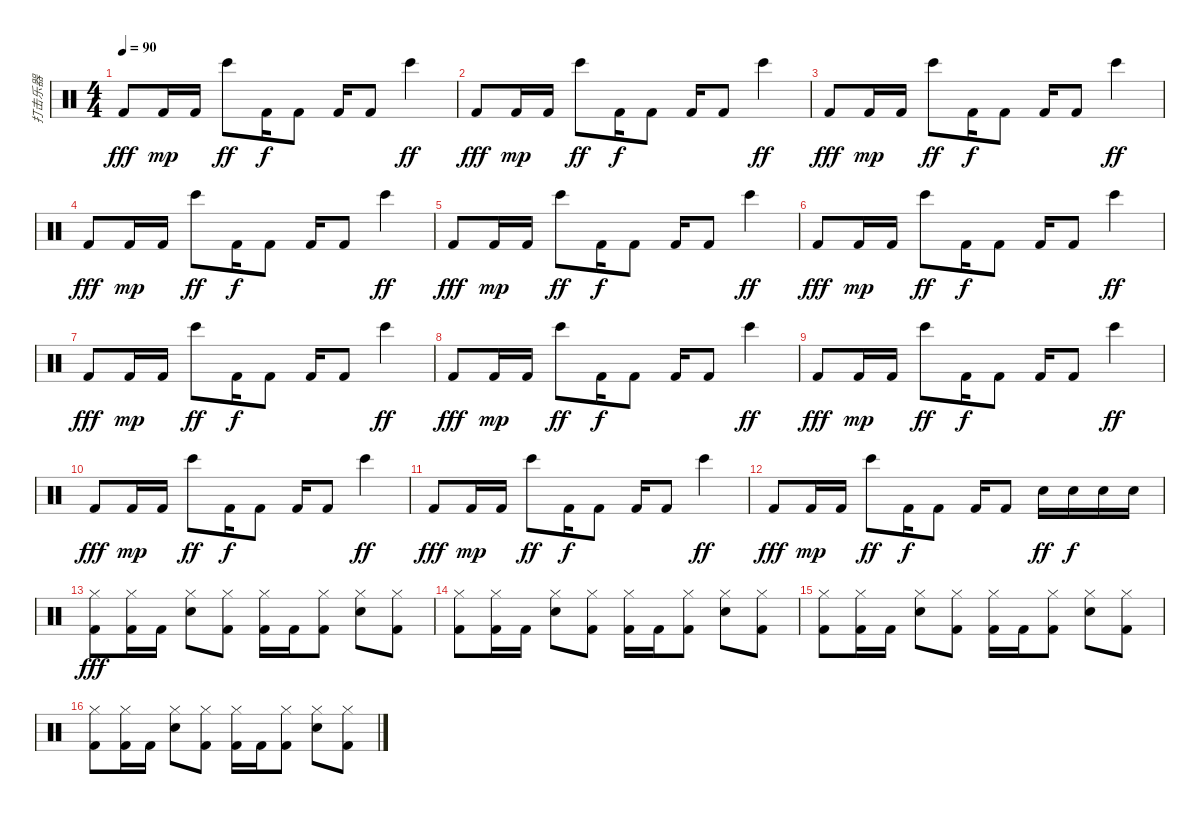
\track ("打击乐器" "打击乐器") {instrument percussion}
\staff {score}
\articulation defaults
\ts (4 4)
\tempo 90
\clef neutral
\ks c "Kick (hit) 2".8{dy fff} "Kick (hit) 2".16{dy mp} "Kick (hit) 2".16 "Bongo High (hit)".8{dy ff} "Kick (hit) 2".16{dy f} "Kick (hit) 2".8 "Kick (hit) 2".16 "Kick (hit) 2".8 "Bongo High (hit)".4{dy ff}
|
"Kick (hit) 2".8{dy fff} "Kick (hit) 2".16{dy mp} "Kick (hit) 2".16 "Bongo High (hit)".8{dy ff} "Kick (hit) 2".16{dy f} "Kick (hit) 2".8 "Kick (hit) 2".16 "Kick (hit) 2".8 "Bongo High (hit)".4{dy ff} |
"Kick (hit) 2".8{dy fff} "Kick (hit) 2".16{dy mp} "Kick (hit) 2".16 "Bongo High (hit)".8{dy ff} "Kick (hit) 2".16{dy f} "Kick (hit) 2".8 "Kick (hit) 2".16 "Kick (hit) 2".8 "Bongo High (hit)".4{dy ff} |
"Kick (hit) 2".8{dy fff} "Kick (hit) 2".16{dy mp} "Kick (hit) 2".16 "Bongo High (hit)".8{dy ff} "Kick (hit) 2".16{dy f} "Kick (hit) 2".8 "Kick (hit) 2".16 "Kick (hit) 2".8 "Bongo High (hit)".4{dy ff} |
"Kick (hit) 2".8{dy fff} "Kick (hit) 2".16{dy mp} "Kick (hit) 2".16 "Bongo High (hit)".8{dy ff} "Kick (hit) 2".16{dy f} "Kick (hit) 2".8 "Kick (hit) 2".16 "Kick (hit) 2".8 "Bongo High (hit)".4{dy ff} |
"Kick (hit) 2".8{dy fff} "Kick (hit) 2".16{dy mp} "Kick (hit) 2".16 "Bongo High (hit)".8{dy ff} "Kick (hit) 2".16{dy f} "Kick (hit) 2".8 "Kick (hit) 2".16 "Kick (hit) 2".8 "Bongo High (hit)".4{dy ff} |
"Kick (hit) 2".8{dy fff} "Kick (hit) 2".16{dy mp} "Kick (hit) 2".16 "Bongo High (hit)".8{dy ff} "Kick (hit) 2".16{dy f} "Kick (hit) 2".8 "Kick (hit) 2".16 "Kick (hit) 2".8 "Bongo High (hit)".4{dy ff} |
"Kick (hit) 2".8{dy fff} "Kick (hit) 2".16{dy mp} "Kick (hit) 2".16 "Bongo High (hit)".8{dy ff} "Kick (hit) 2".16{dy f} "Kick (hit) 2".8 "Kick (hit) 2".16 "Kick (hit) 2".8 "Bongo High (hit)".4{dy ff} |
"Kick (hit) 2".8{dy fff} "Kick (hit) 2".16{dy mp} "Kick (hit) 2".16 "Bongo High (hit)".8{dy ff} "Kick (hit) 2".16{dy f} "Kick (hit) 2".8 "Kick (hit) 2".16 "Kick (hit) 2".8 "Bongo High (hit)".4{dy ff} |
"Kick (hit) 2".8{dy fff} "Kick (hit) 2".16{dy mp} "Kick (hit) 2".16 "Bongo High (hit)".8{dy ff} "Kick (hit) 2".16{dy f} "Kick (hit) 2".8 "Kick (hit) 2".16 "Kick (hit) 2".8 "Bongo High (hit)".4{dy ff} |
"Kick (hit) 2".8{dy fff} "Kick (hit) 2".16{dy mp} "Kick (hit) 2".16 "Bongo High (hit)".8{dy ff} "Kick (hit) 2".16{dy f} "Kick (hit) 2".8 "Kick (hit) 2".16 "Kick (hit) 2".8 "Bongo High (hit)".4{dy ff} |
"Kick (hit) 2".8{dy fff} "Kick (hit) 2".16{dy mp} "Kick (hit) 2".16 "Bongo High (hit)".8{dy ff} "Kick (hit) 2".16{dy f} "Kick (hit) 2".8 "Kick (hit) 2".16 "Kick (hit) 2".8 "Electric Snare (hit)".16{dy ff} "Electric Snare (hit)".16{dy f} "Electric Snare (hit)".16 "Electric Snare (hit)".16 |
("Hi-Hat (closed)" "Kick (hit) 2").8{dy fff} ("Hi-Hat (closed)" "Kick (hit) 2").16 "Kick (hit) 2".16 ("Hi-Hat (closed)" "Electric Snare (hit)").8 ("Hi-Hat (closed)" "Kick (hit) 2").8 ("Hi-Hat (closed)" "Kick (hit) 2").16 "Kick (hit) 2".16 ("Hi-Hat (closed)" "Kick (hit) 2").8 ("Hi-Hat (closed)" "Electric Snare (hit)").8 ("Hi-Hat (closed)" "Kick (hit) 2").8 |
("Hi-Hat (closed)" "Kick (hit) 2").8 ("Hi-Hat (closed)" "Kick (hit) 2").16 "Kick (hit) 2".16 ("Hi-Hat (closed)" "Electric Snare (hit)").8 ("Hi-Hat (closed)" "Kick (hit) 2").8 ("Hi-Hat (closed)" "Kick (hit) 2").16 "Kick (hit) 2".16 ("Hi-Hat (closed)" "Kick (hit) 2").8 ("Hi-Hat (closed)" "Electric Snare (hit)").8 ("Hi-Hat (closed)" "Kick (hit) 2").8 |
("Hi-Hat (closed)" "Kick (hit) 2").8 ("Hi-Hat (closed)" "Kick (hit) 2").16 "Kick (hit) 2".16 ("Hi-Hat (closed)" "Electric Snare (hit)").8 ("Hi-Hat (closed)" "Kick (hit) 2").8 ("Hi-Hat (closed)" "Kick (hit) 2").16 "Kick (hit) 2".16 ("Hi-Hat (closed)" "Kick (hit) 2").8 ("Hi-Hat (closed)" "Electric Snare (hit)").8 ("Hi-Hat (closed)" "Kick (hit) 2").8 |
("Hi-Hat (closed)" "Kick (hit) 2").8 ("Hi-Hat (closed)" "Kick (hit) 2").16 "Kick (hit) 2".16 ("Hi-Hat (closed)" "Electric Snare (hit)").8 ("Hi-Hat (closed)" "Kick (hit) 2").8 ("Hi-Hat (closed)" "Kick (hit) 2").16 "Kick (hit) 2".16 ("Hi-Hat (closed)" "Kick (hit) 2").8 ("Hi-Hat (closed)" "Electric Snare (hit)").8 ("Hi-Hat (closed)" "Kick (hit) 2").8
